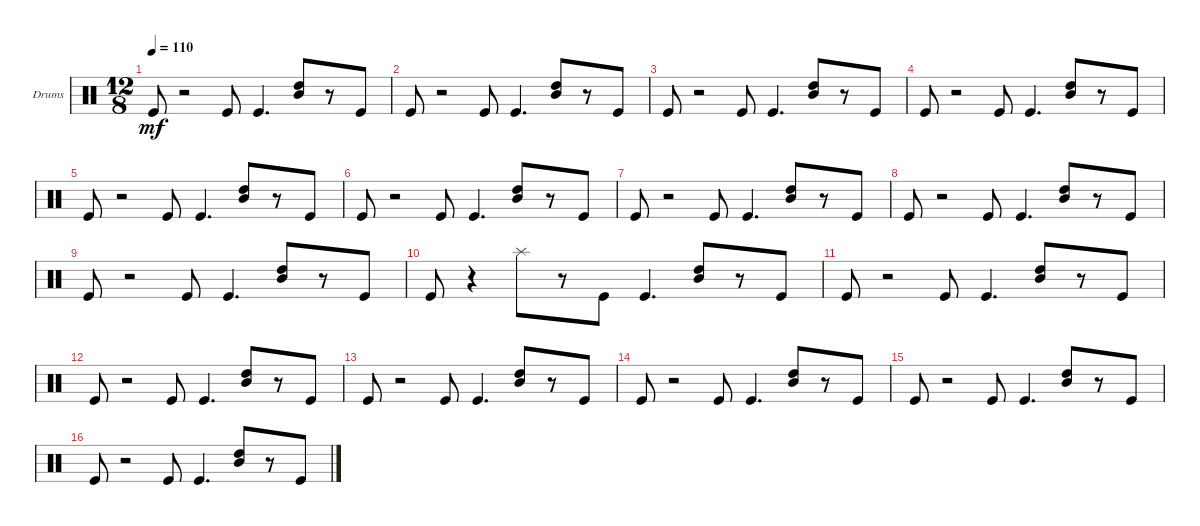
\bracketExtendMode groupsimilarinstruments
\firstSystemTrackNameOrientation horizontal
\otherSystemsTrackNameOrientation horizontal
\track ("Drum Set" "Drums") {instrument percussion}
\staff {score}
\articulation defaults
\ts (12 8)
\tempo 110
\clef neutral
\ks c "Kick (hit)".8{dy mf}
r.2 "Kick (hit)".8 "Kick (hit)".4{d} ("Mid Tom (hit)" "High Tom (hit)").8 r.8 "Kick (hit)".8 |
"Kick (hit)".8 r.2 "Kick (hit)".8 "Kick (hit)".4{d} ("Mid Tom (hit)" "High Tom (hit)").8 r.8 "Kick (hit)".8 |
"Kick (hit)".8 r.2 "Kick (hit)".8 "Kick (hit)".4{d} ("Mid Tom (hit)" "High Tom (hit)").8 r.8 "Kick (hit)".8 |
"Kick (hit)".8 r.2 "Kick (hit)".8 "Kick (hit)".4{d} ("Mid Tom (hit)" "High Tom (hit)").8 r.8 "Kick (hit)".8 |
"Kick (hit)".8 r.2 "Kick (hit)".8 "Kick (hit)".4{d} ("Mid Tom (hit)" "High Tom (hit)").8 r.8 "Kick (hit)".8 |
"Kick (hit)".8 r.2 "Kick (hit)".8 "Kick (hit)".4{d} ("Mid Tom (hit)" "High Tom (hit)").8 r.8 "Kick (hit)".8 |
"Kick (hit)".8 r.2 "Kick (hit)".8 "Kick (hit)".4{d} ("Mid Tom (hit)" "High Tom (hit)").8 r.8 "Kick (hit)".8 |
"Kick (hit)".8 r.2 "Kick (hit)".8 "Kick (hit)".4{d} ("Mid Tom (hit)" "High Tom (hit)").8 r.8 "Kick (hit)".8 |
"Kick (hit)".8 r.2 "Kick (hit)".8 "Kick (hit)".4{d} ("Mid Tom (hit)" "High Tom (hit)").8 r.8 "Kick (hit)".8 |
"Kick (hit)".8 r.4 "Splash (hit)".8 r.8 "Kick (hit)".8 "Kick (hit)".4{d} ("Mid Tom (hit)" "High Tom (hit)").8 r.8 "Kick (hit)".8 |
"Kick (hit)".8 r.2 "Kick (hit)".8 "Kick (hit)".4{d} ("Mid Tom (hit)" "High Tom (hit)").8 r.8 "Kick (hit)".8 |
"Kick (hit)".8 r.2 "Kick (hit)".8 "Kick (hit)".4{d} ("Mid Tom (hit)" "High Tom (hit)").8 r.8 "Kick (hit)".8 |
"Kick (hit)".8 r.2 "Kick (hit)".8 "Kick (hit)".4{d} ("Mid Tom (hit)" "High Tom (hit)").8 r.8 "Kick (hit)".8 |
"Kick (hit)".8 r.2 "Kick (hit)".8 "Kick (hit)".4{d} ("Mid Tom (hit)" "High Tom (hit)").8 r.8 "Kick (hit)".8 |
"Kick (hit)".8 r.2 "Kick (hit)".8 "Kick (hit)".4{d} ("Mid Tom (hit)" "High Tom (hit)").8 r.8 "Kick (hit)".8 |
"Kick (hit)".8 r.2 "Kick (hit)".8 "Kick (hit)".4{d} ("Mid Tom (hit)" "High Tom (hit)").8 r.8 "Kick (hit)".8
